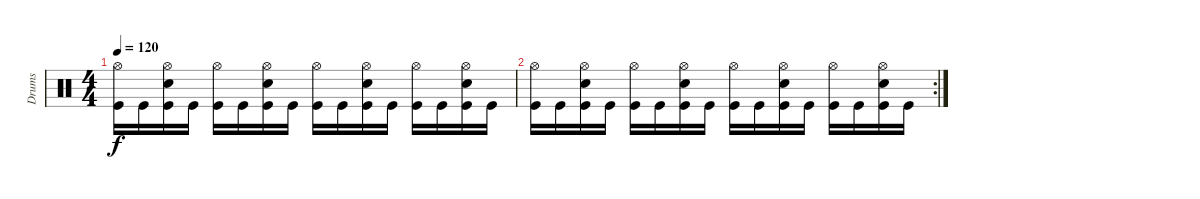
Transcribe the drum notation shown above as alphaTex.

\track ("Drums" "Drums") {instrument percussion}
\staff {score}
\articulation defaults
\ts (4 4)
\tempo 120
\clef neutral
\ks c
("Hi-Hat (open)" "Kick (hit)").16{dy f} "Kick (hit)".16 ("Hi-Hat (open)" "Snare (hit) 2" "Kick (hit)").16 "Kick (hit)".16 ("Hi-Hat (open)" "Kick (hit)").16 "Kick (hit)".16 ("Hi-Hat (open)" "Snare (hit) 2" "Kick (hit)").16 "Kick (hit)".16 ("Hi-Hat (open)" "Kick (hit)").16 "Kick (hit)".16 ("Hi-Hat (open)" "Snare (hit) 2" "Kick (hit)").16 "Kick (hit)".16 ("Hi-Hat (open)" "Kick (hit)").16 "Kick (hit)".16 ("Hi-Hat (open)" "Snare (hit) 2" "Kick (hit)").16 "Kick (hit)".16 |
\rc 2
("Hi-Hat (open)" "Kick (hit)").16 "Kick (hit)".16 ("Hi-Hat (open)" "Snare (hit) 2" "Kick (hit)").16 "Kick (hit)".16 ("Hi-Hat (open)" "Kick (hit)").16 "Kick (hit)".16 ("Hi-Hat (open)" "Snare (hit) 2" "Kick (hit)").16 "Kick (hit)".16 ("Hi-Hat (open)" "Kick (hit)").16 "Kick (hit)".16 ("Hi-Hat (open)" "Snare (hit) 2" "Kick (hit)").16 "Kick (hit)".16 ("Hi-Hat (open)" "Kick (hit)").16 "Kick (hit)".16 ("Hi-Hat (open)" "Snare (hit) 2" "Kick (hit)").16 "Kick (hit)".16
